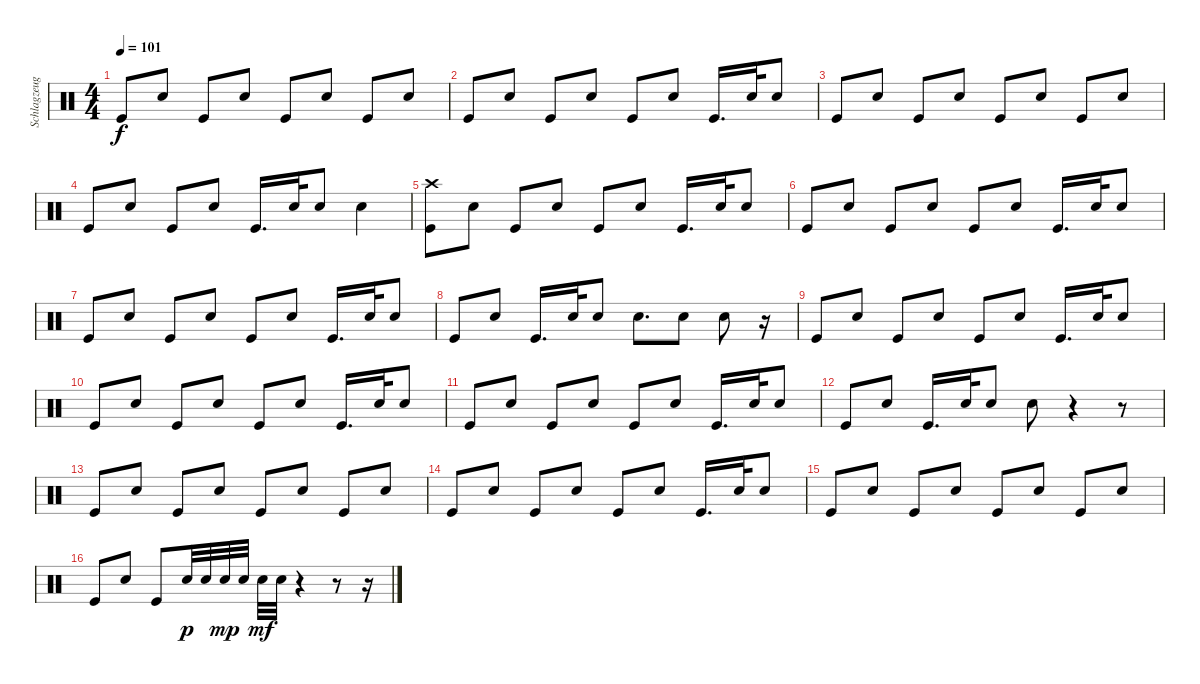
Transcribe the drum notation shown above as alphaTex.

\track ("Schlagzeug" "Schlagzeug") {instrument percussion}
\staff {score}
\articulation defaults
\ts (4 4)
\tempo 101
\clef neutral
\ks c "Kick (hit)".8{dy f} "Snare (hit) 2".8 "Kick (hit)".8 "Snare (hit) 2".8 "Kick (hit)".8 "Snare (hit) 2".8 "Kick (hit)".8 "Snare (hit) 2".8
|
"Kick (hit)".8 "Snare (hit) 2".8 "Kick (hit)".8 "Snare (hit) 2".8 "Kick (hit)".8 "Snare (hit) 2".8 "Kick (hit)".16{d} "Snare (hit) 2".32 "Snare (hit) 2".8 |
"Kick (hit)".8 "Snare (hit) 2".8 "Kick (hit)".8 "Snare (hit) 2".8 "Kick (hit)".8 "Snare (hit) 2".8 "Kick (hit)".8 "Snare (hit) 2".8 |
"Kick (hit)".8 "Snare (hit) 2".8 "Kick (hit)".8 "Snare (hit) 2".8 "Kick (hit)".16{d} "Snare (hit) 2".32 "Snare (hit) 2".8 "Snare (hit) 2".4 |
("Crash high (hit)" "Kick (hit)").8 "Snare (hit) 2".8 "Kick (hit)".8 "Snare (hit) 2".8 "Kick (hit)".8 "Snare (hit) 2".8 "Kick (hit)".16{d} "Snare (hit) 2".32 "Snare (hit) 2".8 |
"Kick (hit)".8 "Snare (hit) 2".8 "Kick (hit)".8 "Snare (hit) 2".8 "Kick (hit)".8 "Snare (hit) 2".8 "Kick (hit)".16{d} "Snare (hit) 2".32 "Snare (hit) 2".8 |
"Kick (hit)".8 "Snare (hit) 2".8 "Kick (hit)".8 "Snare (hit) 2".8 "Kick (hit)".8 "Snare (hit) 2".8 "Kick (hit)".16{d} "Snare (hit) 2".32 "Snare (hit) 2".8 |
"Kick (hit)".8 "Snare (hit) 2".8 "Kick (hit)".16{d} "Snare (hit) 2".32 "Snare (hit) 2".8 "Snare (hit) 2".8{d} "Snare (hit) 2".8 "Snare (hit) 2".8 r.16 |
"Kick (hit)".8 "Snare (hit) 2".8 "Kick (hit)".8 "Snare (hit) 2".8 "Kick (hit)".8 "Snare (hit) 2".8 "Kick (hit)".16{d} "Snare (hit) 2".32 "Snare (hit) 2".8 |
"Kick (hit)".8 "Snare (hit) 2".8 "Kick (hit)".8 "Snare (hit) 2".8 "Kick (hit)".8 "Snare (hit) 2".8 "Kick (hit)".16{d} "Snare (hit) 2".32 "Snare (hit) 2".8 |
"Kick (hit)".8 "Snare (hit) 2".8 "Kick (hit)".8 "Snare (hit) 2".8 "Kick (hit)".8 "Snare (hit) 2".8 "Kick (hit)".16{d} "Snare (hit) 2".32 "Snare (hit) 2".8 |
"Kick (hit)".8 "Snare (hit) 2".8 "Kick (hit)".16{d} "Snare (hit) 2".32 "Snare (hit) 2".8 "Snare (hit) 2".8 r.4 r.8 |
"Kick (hit)".8 "Snare (hit) 2".8 "Kick (hit)".8 "Snare (hit) 2".8 "Kick (hit)".8 "Snare (hit) 2".8 "Kick (hit)".8 "Snare (hit) 2".8 |
"Kick (hit)".8 "Snare (hit) 2".8 "Kick (hit)".8 "Snare (hit) 2".8 "Kick (hit)".8 "Snare (hit) 2".8 "Kick (hit)".16{d} "Snare (hit) 2".32 "Snare (hit) 2".8 |
"Kick (hit)".8 "Snare (hit) 2".8 "Kick (hit)".8 "Snare (hit) 2".8 "Kick (hit)".8 "Snare (hit) 2".8 "Kick (hit)".8 "Snare (hit) 2".8 |
"Kick (hit)".8 "Snare (hit) 2".8 "Kick (hit)".8 "Snare (hit) 2".32{dy p} "Snare (hit) 2".32 "Snare (hit) 2".32{dy mp} "Snare (hit) 2".32 "Snare (hit) 2".32{dy mf} "Snare (hit) 2".32 r.4 r.8 r.16
